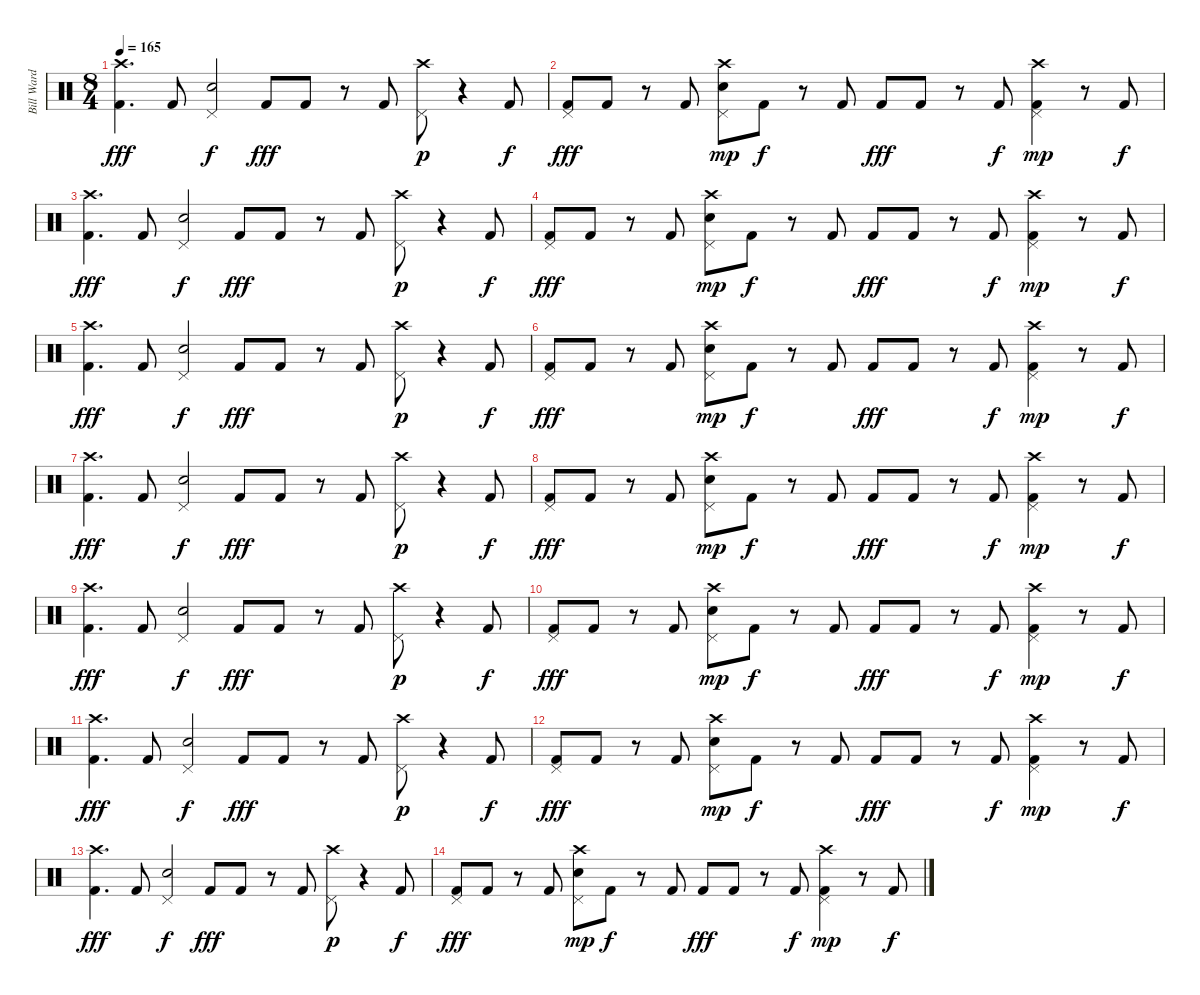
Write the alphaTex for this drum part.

\track ("Bill Ward" "Bill Ward") {instrument percussion}
\staff {score}
\articulation defaults
\ts (8 4)
\tempo 165
\clef neutral
\ks c
("Crash high (hit)" "Kick (hit) 2").4{d dy fff} "Kick (hit) 2".8 ("Pedal Hi-Hat (hit)" "Snare (hit) 2").2{dy f} "Kick (hit) 2".8{dy fff} "Kick (hit) 2".8 r.8 "Kick (hit) 2".8 ("Crash high (hit)" "Pedal Hi-Hat (hit)").8{dy p} r.4 "Kick (hit) 2".8{dy f} |
("Pedal Hi-Hat (hit)" "Kick (hit) 2").8{dy fff} "Kick (hit) 2".8 r.8 "Kick (hit) 2".8 ("Crash high (hit)" "Pedal Hi-Hat (hit)" "Snare (hit) 2").8{dy mp} "Kick (hit) 2".8{dy f} r.8 "Kick (hit) 2".8 "Kick (hit) 2".8{dy fff} "Kick (hit) 2".8 r.8 "Kick (hit) 2".8{dy f} ("Crash high (hit)" "Pedal Hi-Hat (hit)" "Kick (hit) 2").4{dy mp} r.8 "Kick (hit) 2".8{dy f} |
("Crash high (hit)" "Kick (hit) 2").4{d dy fff} "Kick (hit) 2".8 ("Pedal Hi-Hat (hit)" "Snare (hit) 2").2{dy f} "Kick (hit) 2".8{dy fff} "Kick (hit) 2".8 r.8 "Kick (hit) 2".8 ("Crash high (hit)" "Pedal Hi-Hat (hit)").8{dy p} r.4 "Kick (hit) 2".8{dy f} |
("Pedal Hi-Hat (hit)" "Kick (hit) 2").8{dy fff} "Kick (hit) 2".8 r.8 "Kick (hit) 2".8 ("Crash high (hit)" "Pedal Hi-Hat (hit)" "Snare (hit) 2").8{dy mp} "Kick (hit) 2".8{dy f} r.8 "Kick (hit) 2".8 "Kick (hit) 2".8{dy fff} "Kick (hit) 2".8 r.8 "Kick (hit) 2".8{dy f} ("Crash high (hit)" "Pedal Hi-Hat (hit)" "Kick (hit) 2").4{dy mp} r.8 "Kick (hit) 2".8{dy f} |
("Crash high (hit)" "Kick (hit) 2").4{d dy fff} "Kick (hit) 2".8 ("Pedal Hi-Hat (hit)" "Snare (hit) 2").2{dy f} "Kick (hit) 2".8{dy fff} "Kick (hit) 2".8 r.8 "Kick (hit) 2".8 ("Crash high (hit)" "Pedal Hi-Hat (hit)").8{dy p} r.4 "Kick (hit) 2".8{dy f} |
("Pedal Hi-Hat (hit)" "Kick (hit) 2").8{dy fff} "Kick (hit) 2".8 r.8 "Kick (hit) 2".8 ("Crash high (hit)" "Pedal Hi-Hat (hit)" "Snare (hit) 2").8{dy mp} "Kick (hit) 2".8{dy f} r.8 "Kick (hit) 2".8 "Kick (hit) 2".8{dy fff} "Kick (hit) 2".8 r.8 "Kick (hit) 2".8{dy f} ("Crash high (hit)" "Pedal Hi-Hat (hit)" "Kick (hit) 2").4{dy mp} r.8 "Kick (hit) 2".8{dy f} |
("Crash high (hit)" "Kick (hit) 2").4{d dy fff} "Kick (hit) 2".8 ("Pedal Hi-Hat (hit)" "Snare (hit) 2").2{dy f} "Kick (hit) 2".8{dy fff} "Kick (hit) 2".8 r.8 "Kick (hit) 2".8 ("Crash high (hit)" "Pedal Hi-Hat (hit)").8{dy p} r.4 "Kick (hit) 2".8{dy f} |
("Pedal Hi-Hat (hit)" "Kick (hit) 2").8{dy fff} "Kick (hit) 2".8 r.8 "Kick (hit) 2".8 ("Crash high (hit)" "Pedal Hi-Hat (hit)" "Snare (hit) 2").8{dy mp} "Kick (hit) 2".8{dy f} r.8 "Kick (hit) 2".8 "Kick (hit) 2".8{dy fff} "Kick (hit) 2".8 r.8 "Kick (hit) 2".8{dy f} ("Crash high (hit)" "Pedal Hi-Hat (hit)" "Kick (hit) 2").4{dy mp} r.8 "Kick (hit) 2".8{dy f} |
("Crash high (hit)" "Kick (hit) 2").4{d dy fff} "Kick (hit) 2".8 ("Pedal Hi-Hat (hit)" "Snare (hit) 2").2{dy f} "Kick (hit) 2".8{dy fff} "Kick (hit) 2".8 r.8 "Kick (hit) 2".8 ("Crash high (hit)" "Pedal Hi-Hat (hit)").8{dy p} r.4 "Kick (hit) 2".8{dy f} |
("Pedal Hi-Hat (hit)" "Kick (hit) 2").8{dy fff} "Kick (hit) 2".8 r.8 "Kick (hit) 2".8 ("Crash high (hit)" "Pedal Hi-Hat (hit)" "Snare (hit) 2").8{dy mp} "Kick (hit) 2".8{dy f} r.8 "Kick (hit) 2".8 "Kick (hit) 2".8{dy fff} "Kick (hit) 2".8 r.8 "Kick (hit) 2".8{dy f} ("Crash high (hit)" "Pedal Hi-Hat (hit)" "Kick (hit) 2").4{dy mp} r.8 "Kick (hit) 2".8{dy f} |
("Crash high (hit)" "Kick (hit) 2").4{d dy fff} "Kick (hit) 2".8 ("Pedal Hi-Hat (hit)" "Snare (hit) 2").2{dy f} "Kick (hit) 2".8{dy fff} "Kick (hit) 2".8 r.8 "Kick (hit) 2".8 ("Crash high (hit)" "Pedal Hi-Hat (hit)").8{dy p} r.4 "Kick (hit) 2".8{dy f} |
("Pedal Hi-Hat (hit)" "Kick (hit) 2").8{dy fff} "Kick (hit) 2".8 r.8 "Kick (hit) 2".8 ("Crash high (hit)" "Pedal Hi-Hat (hit)" "Snare (hit) 2").8{dy mp} "Kick (hit) 2".8{dy f} r.8 "Kick (hit) 2".8 "Kick (hit) 2".8{dy fff} "Kick (hit) 2".8 r.8 "Kick (hit) 2".8{dy f} ("Crash high (hit)" "Pedal Hi-Hat (hit)" "Kick (hit) 2").4{dy mp} r.8 "Kick (hit) 2".8{dy f} |
("Crash high (hit)" "Kick (hit) 2").4{d dy fff} "Kick (hit) 2".8 ("Pedal Hi-Hat (hit)" "Snare (hit) 2").2{dy f} "Kick (hit) 2".8{dy fff} "Kick (hit) 2".8 r.8 "Kick (hit) 2".8 ("Crash high (hit)" "Pedal Hi-Hat (hit)").8{dy p} r.4 "Kick (hit) 2".8{dy f} |
("Pedal Hi-Hat (hit)" "Kick (hit) 2").8{dy fff} "Kick (hit) 2".8 r.8 "Kick (hit) 2".8 ("Crash high (hit)" "Pedal Hi-Hat (hit)" "Snare (hit) 2").8{dy mp} "Kick (hit) 2".8{dy f} r.8 "Kick (hit) 2".8 "Kick (hit) 2".8{dy fff} "Kick (hit) 2".8 r.8 "Kick (hit) 2".8{dy f} ("Crash high (hit)" "Pedal Hi-Hat (hit)" "Kick (hit) 2").4{dy mp} r.8 "Kick (hit) 2".8{dy f}
